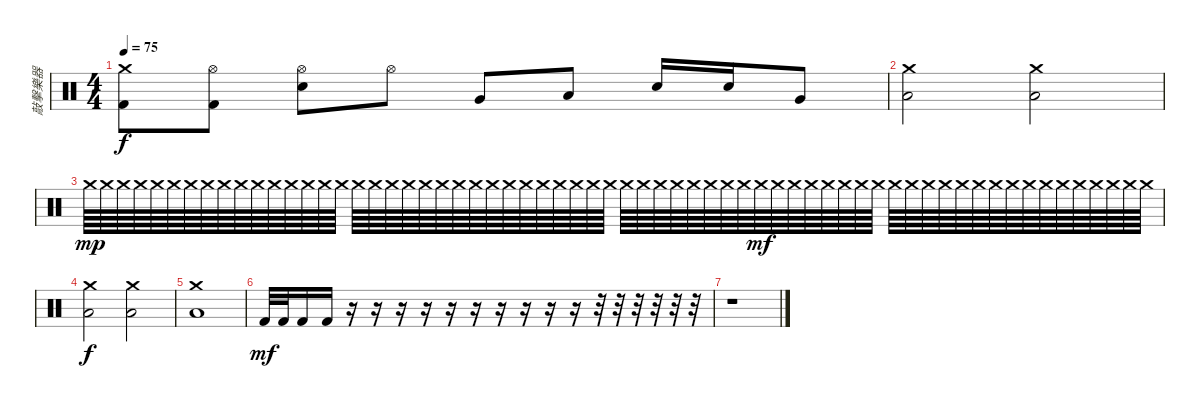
\track ("敲擊樂器" "敲擊樂器") {instrument percussion}
\staff {score}
\articulation defaults
\ts (4 4)
\tempo 75
\clef neutral
\ks c
("Crash medium (hit)" "Kick (hit) 2").8{dy f} ("Hi-Hat (open)" "Kick (hit) 2").8 ("Hi-Hat (open)" "Snare (hit) 2").8 "Hi-Hat (open)".8 "Very Low Tom (hit)".8 "Low Floor Tom (hit)".8 "Snare (hit) 2".16 "Snare (hit) 2".16 "Very Low Tom (hit)".8 |
("Crash medium (hit)" "Low Floor Tom (hit)").2 ("Crash medium (hit)" "Low Floor Tom (hit)").2 |
"Crash medium (hit)".64{dy mp} "Crash medium (hit)".64 "Crash medium (hit)".64 "Crash medium (hit)".64 "Crash medium (hit)".64 "Crash medium (hit)".64 "Crash medium (hit)".64 "Crash medium (hit)".64 "Crash medium (hit)".64 "Crash medium (hit)".64 "Crash medium (hit)".64 "Crash medium (hit)".64 "Crash medium (hit)".64 "Crash medium (hit)".64 "Crash medium (hit)".64 "Crash medium (hit)".64 "Crash medium (hit)".64 "Crash medium (hit)".64 "Crash medium (hit)".64 "Crash medium (hit)".64 "Crash medium (hit)".64 "Crash medium (hit)".64 "Crash medium (hit)".64 "Crash medium (hit)".64 "Crash medium (hit)".64 "Crash medium (hit)".64 "Crash medium (hit)".64 "Crash medium (hit)".64 "Crash medium (hit)".64 "Crash medium (hit)".64 "Crash medium (hit)".64 "Crash medium (hit)".64 "Crash medium (hit)".64 "Crash medium (hit)".64 "Crash medium (hit)".64 "Crash medium (hit)".64 "Crash medium (hit)".64 "Crash medium (hit)".64 "Crash medium (hit)".64 "Crash medium (hit)".64 "Crash medium (hit)".64{dy mf} "Crash medium (hit)".64 "Crash medium (hit)".64 "Crash medium (hit)".64 "Crash medium (hit)".64 "Crash medium (hit)".64 "Crash medium (hit)".64 "Crash medium (hit)".64 "Crash medium (hit)".64 "Crash medium (hit)".64 "Crash medium (hit)".64 "Crash medium (hit)".64 "Crash medium (hit)".64 "Crash medium (hit)".64 "Crash medium (hit)".64 "Crash medium (hit)".64 "Crash medium (hit)".64 "Crash medium (hit)".64 "Crash medium (hit)".64 "Crash medium (hit)".64 "Crash medium (hit)".64 "Crash medium (hit)".64 "Crash medium (hit)".64 "Crash medium (hit)".64 |
("Crash medium (hit)" "Low Floor Tom (hit)").2{dy f} ("Crash medium (hit)" "Low Floor Tom (hit)").2 |
("Crash medium (hit)" "Low Floor Tom (hit)").1 |
"Kick (hit) 2".32{dy mf} "Kick (hit) 2".32 "Kick (hit) 2".16 "Kick (hit) 2".16 r.16 r.16 r.16 r.16 r.16 r.16 r.16 r.16 r.16 r.16 r.32 r.32 r.32 r.32 r.32 r.32 |
r.1
